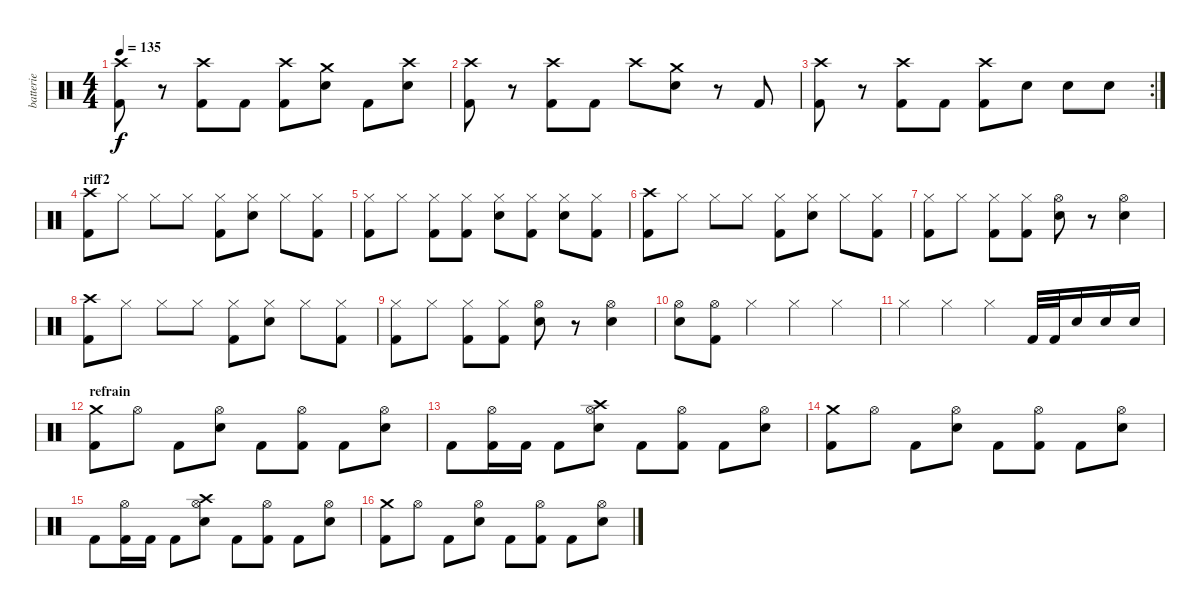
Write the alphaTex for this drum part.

\track ("batterie" "batterie") {instrument percussion}
\staff {score}
\articulation defaults
\ts (4 4)
\tempo 135
\clef neutral
\ks c
("Crash high (hit)" "Kick (hit) 2").8{dy f} r.8 ("Crash high (hit)" "Kick (hit) 2").8 "Kick (hit) 2".8 ("Crash high (hit)" "Kick (hit) 2").8 ("Crash medium (hit)" "Snare (hit) 2").8 "Kick (hit) 2".8 ("Crash high (hit)" "Snare (hit) 2").8 |
("Crash high (hit)" "Kick (hit) 2").8 r.8 ("Crash high (hit)" "Kick (hit) 2").8 "Kick (hit) 2".8 "Crash high (hit)".8 ("Crash medium (hit)" "Snare (hit) 2").8 r.8 "Kick (hit) 2".8 |
\rc 2
("Crash high (hit)" "Kick (hit) 2").8 r.8 ("Crash high (hit)" "Kick (hit) 2").8 "Kick (hit) 2".8 ("Crash high (hit)" "Kick (hit) 2").8 "Snare (hit) 2".8 "Snare (hit) 2".8 "Snare (hit) 2".8 |
\section ("" "riff2")
("Crash high (hit)" "Kick (hit) 2").8 "Hi-Hat (closed)".8 "Hi-Hat (closed)".8 "Hi-Hat (closed)".8 ("Kick (hit) 2" "Hi-Hat (closed)").8 ("Snare (hit) 2" "Hi-Hat (closed)").8 "Hi-Hat (closed)".8 ("Kick (hit) 2" "Hi-Hat (closed)").8 |
("Kick (hit) 2" "Hi-Hat (closed)").8 "Hi-Hat (closed)".8 ("Kick (hit) 2" "Hi-Hat (closed)").8 ("Kick (hit) 2" "Hi-Hat (closed)").8 ("Snare (hit) 2" "Hi-Hat (closed)").8 ("Kick (hit) 2" "Hi-Hat (closed)").8 ("Snare (hit) 2" "Hi-Hat (closed)").8 ("Kick (hit) 2" "Hi-Hat (closed)").8 |
("Crash high (hit)" "Kick (hit) 2").8 "Hi-Hat (closed)".8 "Hi-Hat (closed)".8 "Hi-Hat (closed)".8 ("Kick (hit) 2" "Hi-Hat (closed)").8 ("Snare (hit) 2" "Hi-Hat (closed)").8 "Hi-Hat (closed)".8 ("Kick (hit) 2" "Hi-Hat (closed)").8 |
("Kick (hit) 2" "Hi-Hat (closed)").8 "Hi-Hat (closed)".8 ("Kick (hit) 2" "Hi-Hat (closed)").8 ("Kick (hit) 2" "Hi-Hat (closed)").8 ("Snare (hit) 2" "Hi-Hat (open)").8 r.8 ("Snare (hit) 2" "Hi-Hat (open)").4 |
("Crash high (hit)" "Kick (hit) 2").8 "Hi-Hat (closed)".8 "Hi-Hat (closed)".8 "Hi-Hat (closed)".8 ("Kick (hit) 2" "Hi-Hat (closed)").8 ("Snare (hit) 2" "Hi-Hat (closed)").8 "Hi-Hat (closed)".8 ("Kick (hit) 2" "Hi-Hat (closed)").8 |
("Kick (hit) 2" "Hi-Hat (closed)").8 "Hi-Hat (closed)".8 ("Kick (hit) 2" "Hi-Hat (closed)").8 ("Kick (hit) 2" "Hi-Hat (closed)").8 ("Snare (hit) 2" "Hi-Hat (open)").8 r.8 ("Snare (hit) 2" "Hi-Hat (open)").4 |
("Snare (hit) 2" "Hi-Hat (open)").8 ("Kick (hit) 2" "Hi-Hat (open)").8 "Hi-Hat (closed)".4 "Hi-Hat (closed)".4 "Hi-Hat (closed)".4 |
"Hi-Hat (closed)".4 "Hi-Hat (closed)".4 "Hi-Hat (closed)".4 "Kick (hit) 2".32 "Kick (hit) 2".32 "Snare (hit) 2".16 "Snare (hit) 2".16 "Snare (hit) 2".16 |
\section ("" "refrain")
("Crash medium (hit)" "Kick (hit) 2").8 "Hi-Hat (open)".8 "Kick (hit) 2".8 ("Snare (hit) 2" "Hi-Hat (open)").8 "Kick (hit) 2".8 ("Kick (hit) 2" "Hi-Hat (open)").8 "Kick (hit) 2".8 ("Snare (hit) 2" "Hi-Hat (open)").8 |
"Kick (hit) 2".8 ("Kick (hit) 2" "Hi-Hat (open)").16 "Kick (hit) 2".16 "Kick (hit) 2".8 ("Crash high (hit)" "Snare (hit) 2" "Hi-Hat (open)").8 "Kick (hit) 2".8 ("Kick (hit) 2" "Hi-Hat (open)").8 "Kick (hit) 2".8 ("Snare (hit) 2" "Hi-Hat (open)").8 |
("Crash medium (hit)" "Kick (hit) 2").8 "Hi-Hat (open)".8 "Kick (hit) 2".8 ("Snare (hit) 2" "Hi-Hat (open)").8 "Kick (hit) 2".8 ("Kick (hit) 2" "Hi-Hat (open)").8 "Kick (hit) 2".8 ("Snare (hit) 2" "Hi-Hat (open)").8 |
"Kick (hit) 2".8 ("Kick (hit) 2" "Hi-Hat (open)").16 "Kick (hit) 2".16 "Kick (hit) 2".8 ("Crash high (hit)" "Snare (hit) 2" "Hi-Hat (open)").8 "Kick (hit) 2".8 ("Kick (hit) 2" "Hi-Hat (open)").8 "Kick (hit) 2".8 ("Snare (hit) 2" "Hi-Hat (open)").8 |
("Crash medium (hit)" "Kick (hit) 2").8 "Hi-Hat (open)".8 "Kick (hit) 2".8 ("Snare (hit) 2" "Hi-Hat (open)").8 "Kick (hit) 2".8 ("Kick (hit) 2" "Hi-Hat (open)").8 "Kick (hit) 2".8 ("Snare (hit) 2" "Hi-Hat (open)").8
